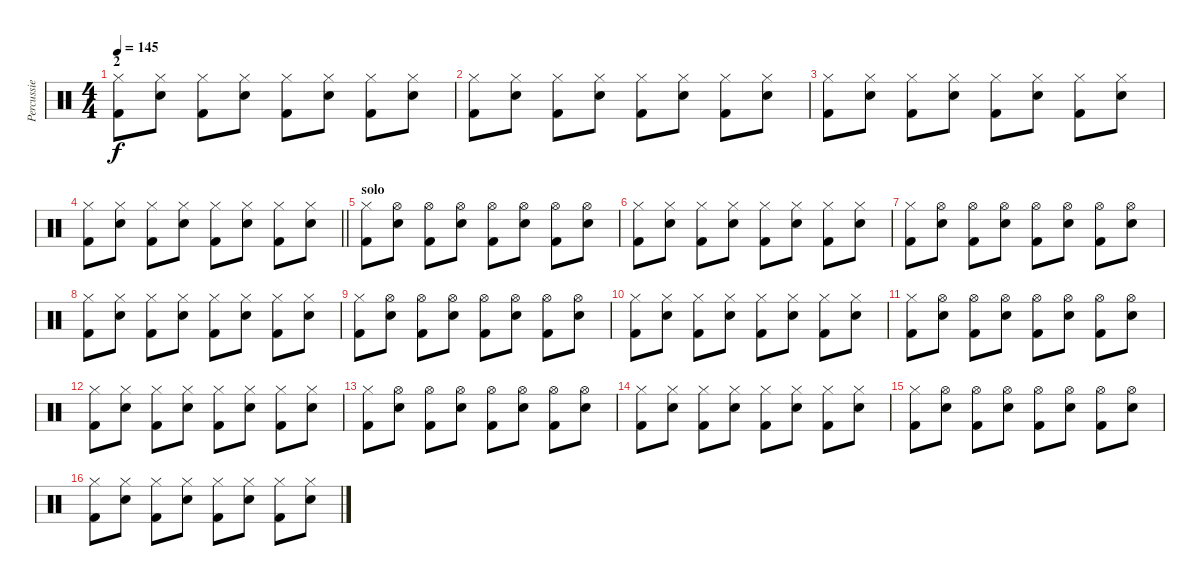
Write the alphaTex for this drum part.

\track ("Percussie" "Percussie") {instrument percussion}
\staff {score}
\articulation defaults
\ts (4 4)
\section ("" "2")
\tempo 145
\clef neutral
\ks c
("Hi-Hat (closed)" "Kick (hit) 2").8{dy f} ("Hi-Hat (closed)" "Snare (hit) 2").8 ("Hi-Hat (closed)" "Kick (hit) 2").8 ("Hi-Hat (closed)" "Snare (hit) 2").8 ("Hi-Hat (closed)" "Kick (hit) 2").8 ("Hi-Hat (closed)" "Snare (hit) 2").8 ("Hi-Hat (closed)" "Kick (hit) 2").8 ("Hi-Hat (closed)" "Snare (hit) 2").8 |
("Hi-Hat (closed)" "Kick (hit) 2").8 ("Hi-Hat (closed)" "Snare (hit) 2").8 ("Hi-Hat (closed)" "Kick (hit) 2").8 ("Hi-Hat (closed)" "Snare (hit) 2").8 ("Hi-Hat (closed)" "Kick (hit) 2").8 ("Hi-Hat (closed)" "Snare (hit) 2").8 ("Hi-Hat (closed)" "Kick (hit) 2").8 ("Hi-Hat (closed)" "Snare (hit) 2").8 |
("Hi-Hat (closed)" "Kick (hit) 2").8 ("Hi-Hat (closed)" "Snare (hit) 2").8 ("Hi-Hat (closed)" "Kick (hit) 2").8 ("Hi-Hat (closed)" "Snare (hit) 2").8 ("Hi-Hat (closed)" "Kick (hit) 2").8 ("Hi-Hat (closed)" "Snare (hit) 2").8 ("Hi-Hat (closed)" "Kick (hit) 2").8 ("Hi-Hat (closed)" "Snare (hit) 2").8 |
\barLineRight lightlight
("Hi-Hat (closed)" "Kick (hit) 2").8 ("Hi-Hat (closed)" "Snare (hit) 2").8 ("Hi-Hat (closed)" "Kick (hit) 2").8 ("Hi-Hat (closed)" "Snare (hit) 2").8 ("Hi-Hat (closed)" "Kick (hit) 2").8 ("Hi-Hat (closed)" "Snare (hit) 2").8 ("Hi-Hat (closed)" "Kick (hit) 2").8 ("Hi-Hat (closed)" "Snare (hit) 2").8 |
\section ("" "solo")
("Hi-Hat (closed)" "Kick (hit) 2").8 ("Hi-Hat (open)" "Snare (hit) 2").8 ("Hi-Hat (open)" "Kick (hit) 2").8 ("Hi-Hat (open)" "Snare (hit) 2").8 ("Hi-Hat (open)" "Kick (hit) 2").8 ("Hi-Hat (open)" "Snare (hit) 2").8 ("Hi-Hat (open)" "Kick (hit) 2").8 ("Hi-Hat (open)" "Snare (hit) 2").8 |
("Hi-Hat (closed)" "Kick (hit) 2").8 ("Hi-Hat (closed)" "Snare (hit) 2").8 ("Hi-Hat (closed)" "Kick (hit) 2").8 ("Hi-Hat (closed)" "Snare (hit) 2").8 ("Hi-Hat (closed)" "Kick (hit) 2").8 ("Hi-Hat (closed)" "Snare (hit) 2").8 ("Hi-Hat (closed)" "Kick (hit) 2").8 ("Hi-Hat (closed)" "Snare (hit) 2").8 |
("Hi-Hat (closed)" "Kick (hit) 2").8 ("Hi-Hat (open)" "Snare (hit) 2").8 ("Hi-Hat (open)" "Kick (hit) 2").8 ("Hi-Hat (open)" "Snare (hit) 2").8 ("Hi-Hat (open)" "Kick (hit) 2").8 ("Hi-Hat (open)" "Snare (hit) 2").8 ("Hi-Hat (open)" "Kick (hit) 2").8 ("Hi-Hat (open)" "Snare (hit) 2").8 |
("Hi-Hat (closed)" "Kick (hit) 2").8 ("Hi-Hat (closed)" "Snare (hit) 2").8 ("Hi-Hat (closed)" "Kick (hit) 2").8 ("Hi-Hat (closed)" "Snare (hit) 2").8 ("Hi-Hat (closed)" "Kick (hit) 2").8 ("Hi-Hat (closed)" "Snare (hit) 2").8 ("Hi-Hat (closed)" "Kick (hit) 2").8 ("Hi-Hat (closed)" "Snare (hit) 2").8 |
("Hi-Hat (closed)" "Kick (hit) 2").8 ("Hi-Hat (open)" "Snare (hit) 2").8 ("Hi-Hat (open)" "Kick (hit) 2").8 ("Hi-Hat (open)" "Snare (hit) 2").8 ("Hi-Hat (open)" "Kick (hit) 2").8 ("Hi-Hat (open)" "Snare (hit) 2").8 ("Hi-Hat (open)" "Kick (hit) 2").8 ("Hi-Hat (open)" "Snare (hit) 2").8 |
("Hi-Hat (closed)" "Kick (hit) 2").8 ("Hi-Hat (closed)" "Snare (hit) 2").8 ("Hi-Hat (closed)" "Kick (hit) 2").8 ("Hi-Hat (closed)" "Snare (hit) 2").8 ("Hi-Hat (closed)" "Kick (hit) 2").8 ("Hi-Hat (closed)" "Snare (hit) 2").8 ("Hi-Hat (closed)" "Kick (hit) 2").8 ("Hi-Hat (closed)" "Snare (hit) 2").8 |
("Hi-Hat (closed)" "Kick (hit) 2").8 ("Hi-Hat (open)" "Snare (hit) 2").8 ("Hi-Hat (open)" "Kick (hit) 2").8 ("Hi-Hat (open)" "Snare (hit) 2").8 ("Hi-Hat (open)" "Kick (hit) 2").8 ("Hi-Hat (open)" "Snare (hit) 2").8 ("Hi-Hat (open)" "Kick (hit) 2").8 ("Hi-Hat (open)" "Snare (hit) 2").8 |
("Hi-Hat (closed)" "Kick (hit) 2").8 ("Hi-Hat (closed)" "Snare (hit) 2").8 ("Hi-Hat (closed)" "Kick (hit) 2").8 ("Hi-Hat (closed)" "Snare (hit) 2").8 ("Hi-Hat (closed)" "Kick (hit) 2").8 ("Hi-Hat (closed)" "Snare (hit) 2").8 ("Hi-Hat (closed)" "Kick (hit) 2").8 ("Hi-Hat (closed)" "Snare (hit) 2").8 |
("Hi-Hat (closed)" "Kick (hit) 2").8 ("Hi-Hat (open)" "Snare (hit) 2").8 ("Hi-Hat (open)" "Kick (hit) 2").8 ("Hi-Hat (open)" "Snare (hit) 2").8 ("Hi-Hat (open)" "Kick (hit) 2").8 ("Hi-Hat (open)" "Snare (hit) 2").8 ("Hi-Hat (open)" "Kick (hit) 2").8 ("Hi-Hat (open)" "Snare (hit) 2").8 |
("Hi-Hat (closed)" "Kick (hit) 2").8 ("Hi-Hat (closed)" "Snare (hit) 2").8 ("Hi-Hat (closed)" "Kick (hit) 2").8 ("Hi-Hat (closed)" "Snare (hit) 2").8 ("Hi-Hat (closed)" "Kick (hit) 2").8 ("Hi-Hat (closed)" "Snare (hit) 2").8 ("Hi-Hat (closed)" "Kick (hit) 2").8 ("Hi-Hat (closed)" "Snare (hit) 2").8 |
("Hi-Hat (closed)" "Kick (hit) 2").8 ("Hi-Hat (open)" "Snare (hit) 2").8 ("Hi-Hat (open)" "Kick (hit) 2").8 ("Hi-Hat (open)" "Snare (hit) 2").8 ("Hi-Hat (open)" "Kick (hit) 2").8 ("Hi-Hat (open)" "Snare (hit) 2").8 ("Hi-Hat (open)" "Kick (hit) 2").8 ("Hi-Hat (open)" "Snare (hit) 2").8 |
("Hi-Hat (closed)" "Kick (hit) 2").8 ("Hi-Hat (closed)" "Snare (hit) 2").8 ("Hi-Hat (closed)" "Kick (hit) 2").8 ("Hi-Hat (closed)" "Snare (hit) 2").8 ("Hi-Hat (closed)" "Kick (hit) 2").8 ("Hi-Hat (closed)" "Snare (hit) 2").8 ("Hi-Hat (closed)" "Kick (hit) 2").8 ("Hi-Hat (closed)" "Snare (hit) 2").8
